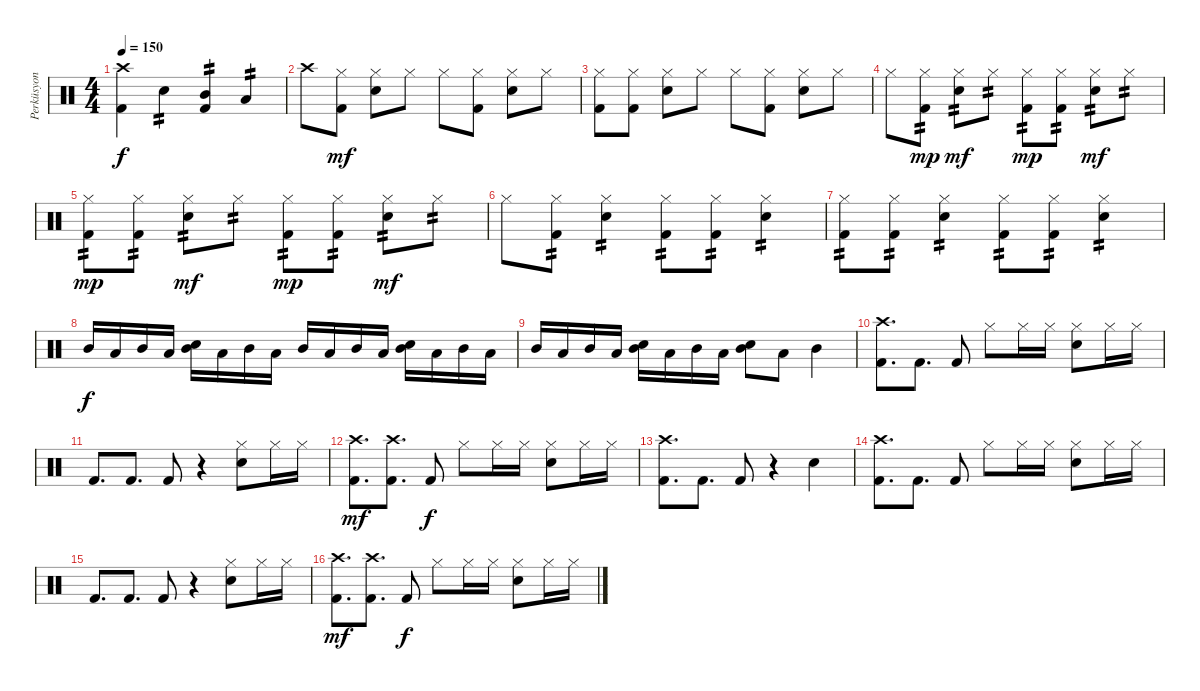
\track ("Perküsyon" "Perküsyon") {instrument percussion}
\staff {score}
\articulation defaults
\ts (4 4)
\tempo 150
\clef neutral
\ks c
("Crash high (hit)" "Kick (hit) 2").4{dy f} "Snare (hit) 2".4{tp 2} ("Mid Tom (hit)" "Kick (hit) 2").4{tp 2} "Low Tom (hit)".4{tp 2} |
"Crash high (hit)".8 ("Hi-Hat (closed)" "Kick (hit) 2").8{dy mf} ("Hi-Hat (closed)" "Snare (hit) 2").8 "Hi-Hat (closed)".8 "Hi-Hat (closed)".8 ("Hi-Hat (closed)" "Kick (hit) 2").8 ("Hi-Hat (closed)" "Snare (hit) 2").8 "Hi-Hat (closed)".8 |
("Hi-Hat (closed)" "Kick (hit) 2").8 ("Hi-Hat (closed)" "Kick (hit) 2").8 ("Hi-Hat (closed)" "Snare (hit) 2").8 "Hi-Hat (closed)".8 "Hi-Hat (closed)".8 ("Hi-Hat (closed)" "Kick (hit) 2").8 ("Hi-Hat (closed)" "Snare (hit) 2").8 "Hi-Hat (closed)".8 |
"Hi-Hat (closed)".8 ("Hi-Hat (closed)" "Kick (hit) 2").8{tp 2 dy mp} ("Hi-Hat (closed)" "Snare (hit) 2").8{tp 2 dy mf} "Hi-Hat (closed)".8{tp 2} ("Hi-Hat (closed)" "Kick (hit) 2").8{tp 2 dy mp} ("Hi-Hat (closed)" "Kick (hit) 2").8{tp 2} ("Hi-Hat (closed)" "Snare (hit) 2").8{tp 2 dy mf} "Hi-Hat (closed)".8{tp 2} |
("Hi-Hat (closed)" "Kick (hit) 2").8{tp 2 dy mp} ("Hi-Hat (closed)" "Kick (hit) 2").8{tp 2} ("Hi-Hat (closed)" "Snare (hit) 2").8{tp 2 dy mf} "Hi-Hat (closed)".8{tp 2} ("Hi-Hat (closed)" "Kick (hit) 2").8{tp 2 dy mp} ("Hi-Hat (closed)" "Kick (hit) 2").8{tp 2} ("Hi-Hat (closed)" "Snare (hit) 2").8{tp 2 dy mf} "Hi-Hat (closed)".8{tp 2} |
"Hi-Hat (closed)".8 ("Hi-Hat (closed)" "Kick (hit) 2").8{tp 2} ("Hi-Hat (closed)" "Snare (hit) 2").4{tp 2} ("Hi-Hat (closed)" "Kick (hit) 2").8{tp 2} ("Hi-Hat (closed)" "Kick (hit) 2").8{tp 2} ("Hi-Hat (closed)" "Snare (hit) 2").4{tp 2} |
("Hi-Hat (closed)" "Kick (hit) 2").8{tp 2} ("Hi-Hat (closed)" "Kick (hit) 2").8{tp 2} ("Hi-Hat (closed)" "Snare (hit) 2").4{tp 2} ("Hi-Hat (closed)" "Kick (hit) 2").8{tp 2} ("Hi-Hat (closed)" "Kick (hit) 2").8{tp 2} ("Hi-Hat (closed)" "Snare (hit) 2").4{tp 2} |
"Mid Tom (hit)".16{dy f} "Low Tom (hit)".16 "Mid Tom (hit)".16 "Low Tom (hit)".16 ("Mid Tom (hit)" "Snare (hit) 2").16 "Low Tom (hit)".16 "Mid Tom (hit)".16 "Low Tom (hit)".16 "Mid Tom (hit)".16 "Low Tom (hit)".16 "Mid Tom (hit)".16 "Low Tom (hit)".16 ("Mid Tom (hit)" "Snare (hit) 2").16 "Low Tom (hit)".16 "Mid Tom (hit)".16 "Low Tom (hit)".16 |
"Mid Tom (hit)".16 "Low Tom (hit)".16 "Mid Tom (hit)".16 "Low Tom (hit)".16 ("Mid Tom (hit)" "Snare (hit) 2").16 "Low Tom (hit)".16 "Mid Tom (hit)".16 "Low Tom (hit)".16 ("Mid Tom (hit)" "Snare (hit) 2").8 "Low Tom (hit)".8 "Mid Tom (hit)".4 |
("Kick (hit) 2" "Crash high (hit)").8{d} "Kick (hit) 2".8{d} "Kick (hit) 2".8 "Hi-Hat (closed)".8 "Hi-Hat (closed)".16 "Hi-Hat (closed)".16 ("Snare (hit) 2" "Hi-Hat (closed)").8 "Hi-Hat (closed)".16 "Hi-Hat (closed)".16 |
"Kick (hit) 2".8{d} "Kick (hit) 2".8{d} "Kick (hit) 2".8 r.4 ("Snare (hit) 2" "Hi-Hat (closed)").8 "Hi-Hat (closed)".16 "Hi-Hat (closed)".16 |
("Kick (hit) 2" "Crash high (hit)").8{d dy mf} ("Crash high (hit)" "Kick (hit) 2").8{d} "Kick (hit) 2".8{dy f} "Hi-Hat (closed)".8 "Hi-Hat (closed)".16 "Hi-Hat (closed)".16 ("Snare (hit) 2" "Hi-Hat (closed)").8 "Hi-Hat (closed)".16 "Hi-Hat (closed)".16 |
("Kick (hit) 2" "Crash high (hit)").8{d} "Kick (hit) 2".8{d} "Kick (hit) 2".8 r.4 "Snare (hit) 2".4 |
("Kick (hit) 2" "Crash high (hit)").8{d} "Kick (hit) 2".8{d} "Kick (hit) 2".8 "Hi-Hat (closed)".8 "Hi-Hat (closed)".16 "Hi-Hat (closed)".16 ("Snare (hit) 2" "Hi-Hat (closed)").8 "Hi-Hat (closed)".16 "Hi-Hat (closed)".16 |
"Kick (hit) 2".8{d} "Kick (hit) 2".8{d} "Kick (hit) 2".8 r.4 ("Snare (hit) 2" "Hi-Hat (closed)").8 "Hi-Hat (closed)".16 "Hi-Hat (closed)".16 |
("Kick (hit) 2" "Crash high (hit)").8{d dy mf} ("Crash high (hit)" "Kick (hit) 2").8{d} "Kick (hit) 2".8{dy f} "Hi-Hat (closed)".8 "Hi-Hat (closed)".16 "Hi-Hat (closed)".16 ("Snare (hit) 2" "Hi-Hat (closed)").8 "Hi-Hat (closed)".16 "Hi-Hat (closed)".16
